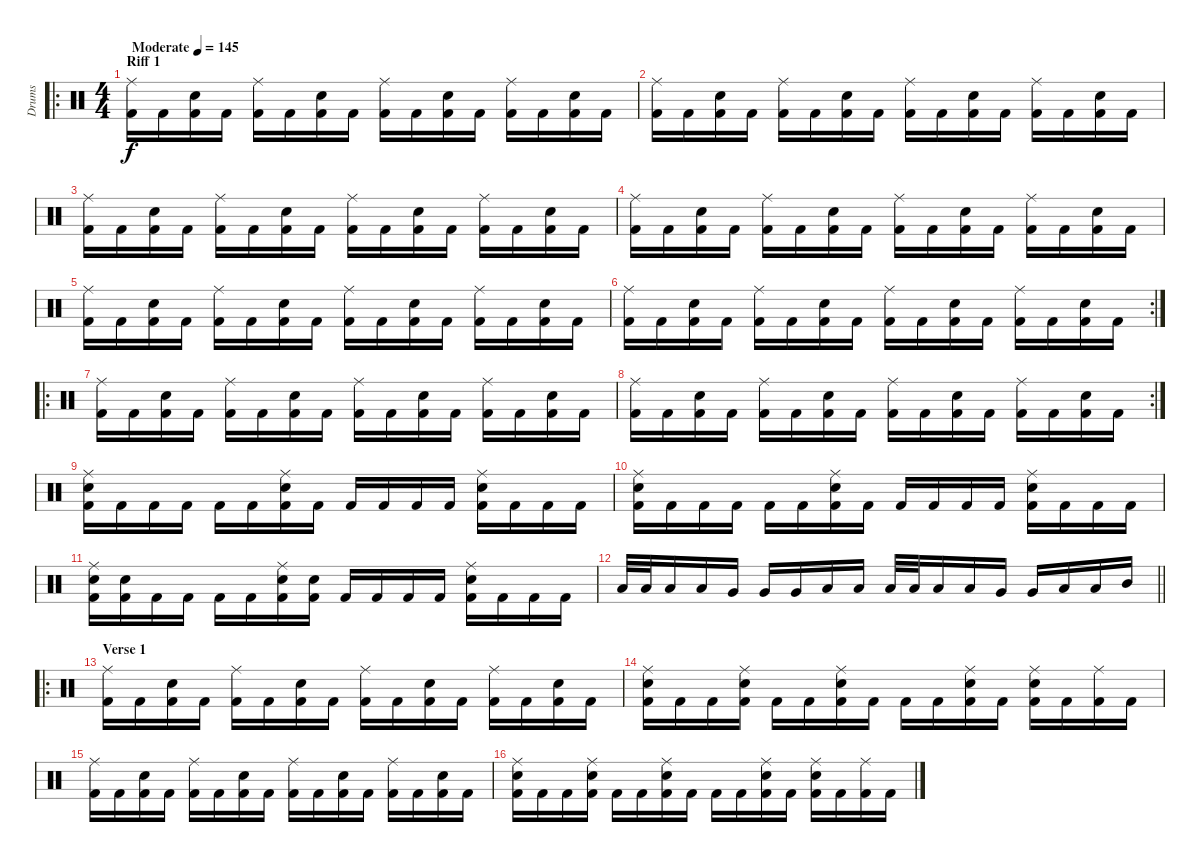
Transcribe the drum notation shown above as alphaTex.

\track ("Drums" "Drums") {instrument percussion}
\staff {score}
\articulation defaults
\ro
\ts (4 4)
\section ("" "Riff 1")
\tempo (145 "Moderate")
\clef neutral
\ks c
("Ride (middle)" "Kick (hit) 2").16{dy f} "Kick (hit) 2".16 ("Electric Snare (hit)" "Kick (hit) 2").16 "Kick (hit) 2".16 ("Ride (middle)" "Kick (hit) 2").16 "Kick (hit) 2".16 ("Electric Snare (hit)" "Kick (hit) 2").16 "Kick (hit) 2".16 ("Ride (middle)" "Kick (hit) 2").16 "Kick (hit) 2".16 ("Electric Snare (hit)" "Kick (hit) 2").16 "Kick (hit) 2".16 ("Ride (middle)" "Kick (hit) 2").16 "Kick (hit) 2".16 ("Electric Snare (hit)" "Kick (hit) 2").16 "Kick (hit) 2".16 |
("Ride (middle)" "Kick (hit) 2").16 "Kick (hit) 2".16 ("Electric Snare (hit)" "Kick (hit) 2").16 "Kick (hit) 2".16 ("Ride (middle)" "Kick (hit) 2").16 "Kick (hit) 2".16 ("Electric Snare (hit)" "Kick (hit) 2").16 "Kick (hit) 2".16 ("Ride (middle)" "Kick (hit) 2").16 "Kick (hit) 2".16 ("Electric Snare (hit)" "Kick (hit) 2").16 "Kick (hit) 2".16 ("Ride (middle)" "Kick (hit) 2").16 "Kick (hit) 2".16 ("Electric Snare (hit)" "Kick (hit) 2").16 "Kick (hit) 2".16 |
("Ride (middle)" "Kick (hit) 2").16 "Kick (hit) 2".16 ("Electric Snare (hit)" "Kick (hit) 2").16 "Kick (hit) 2".16 ("Ride (middle)" "Kick (hit) 2").16 "Kick (hit) 2".16 ("Electric Snare (hit)" "Kick (hit) 2").16 "Kick (hit) 2".16 ("Ride (middle)" "Kick (hit) 2").16 "Kick (hit) 2".16 ("Electric Snare (hit)" "Kick (hit) 2").16 "Kick (hit) 2".16 ("Ride (middle)" "Kick (hit) 2").16 "Kick (hit) 2".16 ("Electric Snare (hit)" "Kick (hit) 2").16 "Kick (hit) 2".16 |
("Ride (middle)" "Kick (hit) 2").16 "Kick (hit) 2".16 ("Electric Snare (hit)" "Kick (hit) 2").16 "Kick (hit) 2".16 ("Ride (middle)" "Kick (hit) 2").16 "Kick (hit) 2".16 ("Electric Snare (hit)" "Kick (hit) 2").16 "Kick (hit) 2".16 ("Ride (middle)" "Kick (hit) 2").16 "Kick (hit) 2".16 ("Electric Snare (hit)" "Kick (hit) 2").16 "Kick (hit) 2".16 ("Ride (middle)" "Kick (hit) 2").16 "Kick (hit) 2".16 ("Electric Snare (hit)" "Kick (hit) 2").16 "Kick (hit) 2".16 |
("Ride (middle)" "Kick (hit) 2").16 "Kick (hit) 2".16 ("Electric Snare (hit)" "Kick (hit) 2").16 "Kick (hit) 2".16 ("Ride (middle)" "Kick (hit) 2").16 "Kick (hit) 2".16 ("Electric Snare (hit)" "Kick (hit) 2").16 "Kick (hit) 2".16 ("Ride (middle)" "Kick (hit) 2").16 "Kick (hit) 2".16 ("Electric Snare (hit)" "Kick (hit) 2").16 "Kick (hit) 2".16 ("Ride (middle)" "Kick (hit) 2").16 "Kick (hit) 2".16 ("Electric Snare (hit)" "Kick (hit) 2").16 "Kick (hit) 2".16 |
\rc 2
("Ride (middle)" "Kick (hit) 2").16 "Kick (hit) 2".16 ("Electric Snare (hit)" "Kick (hit) 2").16 "Kick (hit) 2".16 ("Ride (middle)" "Kick (hit) 2").16 "Kick (hit) 2".16 ("Electric Snare (hit)" "Kick (hit) 2").16 "Kick (hit) 2".16 ("Ride (middle)" "Kick (hit) 2").16 "Kick (hit) 2".16 ("Electric Snare (hit)" "Kick (hit) 2").16 "Kick (hit) 2".16 ("Ride (middle)" "Kick (hit) 2").16 "Kick (hit) 2".16 ("Electric Snare (hit)" "Kick (hit) 2").16 "Kick (hit) 2".16 |
\ro
("Ride (middle)" "Kick (hit) 2").16 "Kick (hit) 2".16 ("Electric Snare (hit)" "Kick (hit) 2").16 "Kick (hit) 2".16 ("Ride (middle)" "Kick (hit) 2").16 "Kick (hit) 2".16 ("Electric Snare (hit)" "Kick (hit) 2").16 "Kick (hit) 2".16 ("Ride (middle)" "Kick (hit) 2").16 "Kick (hit) 2".16 ("Electric Snare (hit)" "Kick (hit) 2").16 "Kick (hit) 2".16 ("Ride (middle)" "Kick (hit) 2").16 "Kick (hit) 2".16 ("Electric Snare (hit)" "Kick (hit) 2").16 "Kick (hit) 2".16 |
\rc 2
("Ride (middle)" "Kick (hit) 2").16 "Kick (hit) 2".16 ("Electric Snare (hit)" "Kick (hit) 2").16 "Kick (hit) 2".16 ("Ride (middle)" "Kick (hit) 2").16 "Kick (hit) 2".16 ("Electric Snare (hit)" "Kick (hit) 2").16 "Kick (hit) 2".16 ("Ride (middle)" "Kick (hit) 2").16 "Kick (hit) 2".16 ("Electric Snare (hit)" "Kick (hit) 2").16 "Kick (hit) 2".16 ("Ride (middle)" "Kick (hit) 2").16 "Kick (hit) 2".16 ("Electric Snare (hit)" "Kick (hit) 2").16 "Kick (hit) 2".16 |
("Ride (middle)" "Electric Snare (hit)" "Kick (hit) 2").16 "Kick (hit) 2".16 "Kick (hit) 2".16 "Kick (hit) 2".16 "Kick (hit) 2".16 "Kick (hit) 2".16 ("Ride (middle)" "Electric Snare (hit)" "Kick (hit) 2").16 "Kick (hit) 2".16 "Kick (hit) 2".16 "Kick (hit) 2".16 "Kick (hit) 2".16 "Kick (hit) 2".16 ("Ride (middle)" "Electric Snare (hit)" "Kick (hit) 2").16 "Kick (hit) 2".16 "Kick (hit) 2".16 "Kick (hit) 2".16 |
("Ride (middle)" "Electric Snare (hit)" "Kick (hit) 2").16 "Kick (hit) 2".16 "Kick (hit) 2".16 "Kick (hit) 2".16 "Kick (hit) 2".16 "Kick (hit) 2".16 ("Ride (middle)" "Electric Snare (hit)" "Kick (hit) 2").16 "Kick (hit) 2".16 "Kick (hit) 2".16 "Kick (hit) 2".16 "Kick (hit) 2".16 "Kick (hit) 2".16 ("Ride (middle)" "Electric Snare (hit)" "Kick (hit) 2").16 "Kick (hit) 2".16 "Kick (hit) 2".16 "Kick (hit) 2".16 |
("Ride (middle)" "Electric Snare (hit)" "Kick (hit) 2").16 ("Electric Snare (hit)" "Kick (hit) 2").16 "Kick (hit) 2".16 "Kick (hit) 2".16 "Kick (hit) 2".16 "Kick (hit) 2".16 ("Ride (middle)" "Electric Snare (hit)" "Kick (hit) 2").16 ("Electric Snare (hit)" "Kick (hit) 2").16 "Kick (hit) 2".16 "Kick (hit) 2".16 "Kick (hit) 2".16 "Kick (hit) 2".16 ("Ride (middle)" "Electric Snare (hit)" "Kick (hit) 2").16 "Kick (hit) 2".16 "Kick (hit) 2".16 "Kick (hit) 2".16 |
\barLineRight lightlight "Low Tom (hit)".32 "Low Tom (hit)".32 "Low Tom (hit)".16 "Low Tom (hit)".16 "Very Low Tom (hit)".16 "Very Low Tom (hit)".16 "Very Low Tom (hit)".16 "Low Floor Tom (hit)".16 "Low Floor Tom (hit)".16 "Low Floor Tom (hit)".32 "Low Floor Tom (hit)".32 "Low Floor Tom (hit)".16 "Low Floor Tom (hit)".16 "Very Low Tom (hit)".16 "Very Low Tom (hit)".16 "Low Tom (hit)".16 "Low Tom (hit)".16 "Mid Tom (hit)".16
|
\ro
\section ("" "Verse 1")
("Ride (middle)" "Kick (hit) 2").16 "Kick (hit) 2".16 ("Electric Snare (hit)" "Kick (hit) 2").16 "Kick (hit) 2".16 ("Ride (middle)" "Kick (hit) 2").16 "Kick (hit) 2".16 ("Electric Snare (hit)" "Kick (hit) 2").16 "Kick (hit) 2".16 ("Ride (middle)" "Kick (hit) 2").16 "Kick (hit) 2".16 ("Electric Snare (hit)" "Kick (hit) 2").16 "Kick (hit) 2".16 ("Ride (middle)" "Kick (hit) 2").16 "Kick (hit) 2".16 ("Electric Snare (hit)" "Kick (hit) 2").16 "Kick (hit) 2".16 |
("Ride (middle)" "Electric Snare (hit)" "Kick (hit) 2").16 "Kick (hit) 2".16 "Kick (hit) 2".16 ("Ride (middle)" "Electric Snare (hit)" "Kick (hit) 2").16 "Kick (hit) 2".16 "Kick (hit) 2".16 ("Ride (middle)" "Electric Snare (hit)" "Kick (hit) 2").16 "Kick (hit) 2".16 "Kick (hit) 2".16 "Kick (hit) 2".16 ("Ride (middle)" "Electric Snare (hit)" "Kick (hit) 2").16 "Kick (hit) 2".16 ("Ride (middle)" "Electric Snare (hit)" "Kick (hit) 2").16 "Kick (hit) 2".16 ("Ride (middle)" "Kick (hit) 2").16 "Kick (hit) 2".16 |
("Ride (middle)" "Kick (hit) 2").16 "Kick (hit) 2".16 ("Electric Snare (hit)" "Kick (hit) 2").16 "Kick (hit) 2".16 ("Ride (middle)" "Kick (hit) 2").16 "Kick (hit) 2".16 ("Electric Snare (hit)" "Kick (hit) 2").16 "Kick (hit) 2".16 ("Ride (middle)" "Kick (hit) 2").16 "Kick (hit) 2".16 ("Electric Snare (hit)" "Kick (hit) 2").16 "Kick (hit) 2".16 ("Ride (middle)" "Kick (hit) 2").16 "Kick (hit) 2".16 ("Electric Snare (hit)" "Kick (hit) 2").16 "Kick (hit) 2".16 |
("Ride (middle)" "Electric Snare (hit)" "Kick (hit) 2").16 "Kick (hit) 2".16 "Kick (hit) 2".16 ("Ride (middle)" "Electric Snare (hit)" "Kick (hit) 2").16 "Kick (hit) 2".16 "Kick (hit) 2".16 ("Ride (middle)" "Electric Snare (hit)" "Kick (hit) 2").16 "Kick (hit) 2".16 "Kick (hit) 2".16 "Kick (hit) 2".16 ("Ride (middle)" "Electric Snare (hit)" "Kick (hit) 2").16 "Kick (hit) 2".16 ("Ride (middle)" "Electric Snare (hit)" "Kick (hit) 2").16 "Kick (hit) 2".16 ("Ride (middle)" "Kick (hit) 2").16 "Kick (hit) 2".16
